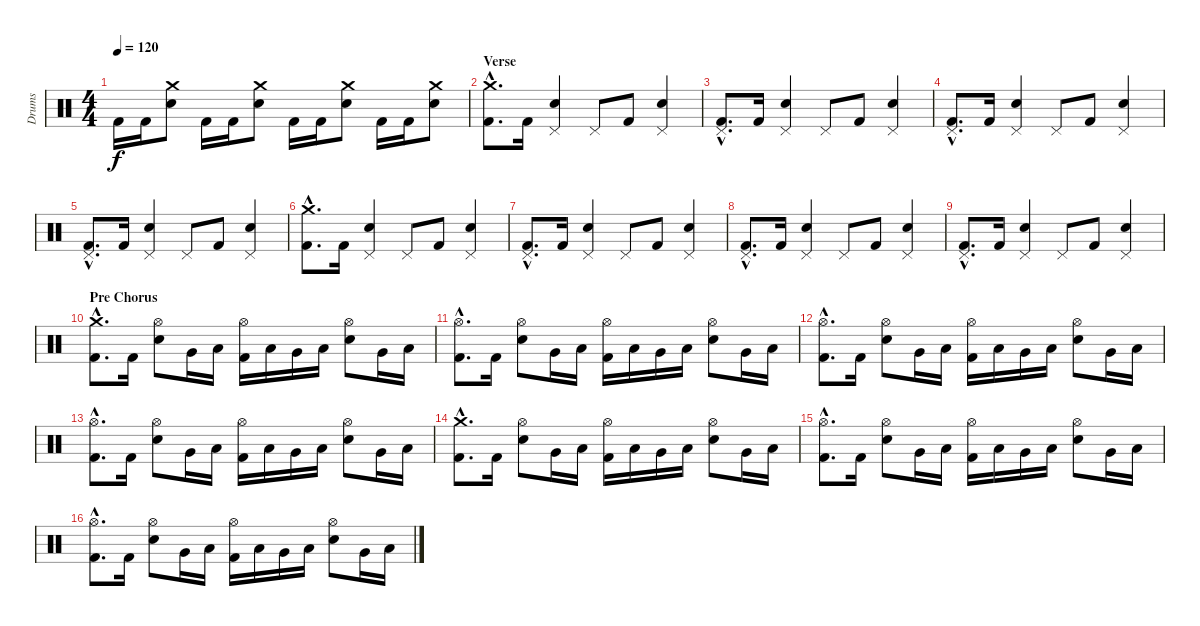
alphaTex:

\track ("Drums" "Drums") {instrument percussion}
\staff {score}
\articulation defaults
\ts (4 4)
\tempo 120
\clef neutral
\ks c "Kick (hit) 2".16{dy f} "Kick (hit) 2".16
("Crash medium (hit)" "Electric Snare (hit)").8 "Kick (hit) 2".16 "Kick (hit) 2".16 ("Crash medium (hit)" "Electric Snare (hit)").8 "Kick (hit) 2".16 "Kick (hit) 2".16 ("Crash medium (hit)" "Electric Snare (hit)").8 "Kick (hit) 2".16 "Kick (hit) 2".16 ("Crash medium (hit)" "Electric Snare (hit)").8 |
\section ("" "Verse")
("Crash medium (hit)"{hac} "Kick (hit) 2"{hac}).8{d} "Kick (hit) 2".16 ("Pedal Hi-Hat (hit)" "Electric Snare (hit)").4 "Pedal Hi-Hat (hit)".8 "Kick (hit) 2".8 ("Pedal Hi-Hat (hit)" "Electric Snare (hit)").4 |
("Pedal Hi-Hat (hit)"{hac} "Kick (hit) 2"{hac}).8{d} "Kick (hit) 2".16 ("Pedal Hi-Hat (hit)" "Electric Snare (hit)").4 "Pedal Hi-Hat (hit)".8 "Kick (hit) 2".8 ("Pedal Hi-Hat (hit)" "Electric Snare (hit)").4 |
("Pedal Hi-Hat (hit)"{hac} "Kick (hit) 2"{hac}).8{d} "Kick (hit) 2".16 ("Pedal Hi-Hat (hit)" "Electric Snare (hit)").4 "Pedal Hi-Hat (hit)".8 "Kick (hit) 2".8 ("Pedal Hi-Hat (hit)" "Electric Snare (hit)").4 |
("Pedal Hi-Hat (hit)"{hac} "Kick (hit) 2"{hac}).8{d} "Kick (hit) 2".16 ("Pedal Hi-Hat (hit)" "Electric Snare (hit)").4 "Pedal Hi-Hat (hit)".8 "Kick (hit) 2".8 ("Pedal Hi-Hat (hit)" "Electric Snare (hit)").4 |
("Crash medium (hit)"{hac} "Kick (hit) 2"{hac}).8{d} "Kick (hit) 2".16 ("Pedal Hi-Hat (hit)" "Electric Snare (hit)").4 "Pedal Hi-Hat (hit)".8 "Kick (hit) 2".8 ("Pedal Hi-Hat (hit)" "Electric Snare (hit)").4 |
("Pedal Hi-Hat (hit)"{hac} "Kick (hit) 2"{hac}).8{d} "Kick (hit) 2".16 ("Pedal Hi-Hat (hit)" "Electric Snare (hit)").4 "Pedal Hi-Hat (hit)".8 "Kick (hit) 2".8 ("Pedal Hi-Hat (hit)" "Electric Snare (hit)").4 |
("Pedal Hi-Hat (hit)"{hac} "Kick (hit) 2"{hac}).8{d} "Kick (hit) 2".16 ("Pedal Hi-Hat (hit)" "Electric Snare (hit)").4 "Pedal Hi-Hat (hit)".8 "Kick (hit) 2".8 ("Pedal Hi-Hat (hit)" "Electric Snare (hit)").4 |
("Pedal Hi-Hat (hit)"{hac} "Kick (hit) 2"{hac}).8{d} "Kick (hit) 2".16 ("Pedal Hi-Hat (hit)" "Electric Snare (hit)").4 "Pedal Hi-Hat (hit)".8 "Kick (hit) 2".8 ("Pedal Hi-Hat (hit)" "Electric Snare (hit)").4 |
\section ("" "Pre Chorus")
("Crash medium (hit)"{hac} "Kick (hit) 2"{hac}).8{d} "Kick (hit) 2".16 ("Hi-Hat (open)" "Electric Snare (hit)").8 "Very Low Tom (hit)".16 "Low Tom (hit)".16 ("Hi-Hat (open)" "Kick (hit) 2").16 "Low Tom (hit)".16 "Very Low Tom (hit)".16 "Low Floor Tom (hit)".16 ("Hi-Hat (open)" "Electric Snare (hit)").8 "Very Low Tom (hit)".16 "Low Tom (hit)".16 |
("Hi-Hat (open)"{hac} "Kick (hit) 2"{hac}).8{d} "Kick (hit) 2".16 ("Hi-Hat (open)" "Electric Snare (hit)").8 "Very Low Tom (hit)".16 "Low Tom (hit)".16 ("Hi-Hat (open)" "Kick (hit) 2").16 "Low Tom (hit)".16 "Very Low Tom (hit)".16 "Low Floor Tom (hit)".16 ("Hi-Hat (open)" "Electric Snare (hit)").8 "Very Low Tom (hit)".16 "Low Tom (hit)".16 |
("Hi-Hat (open)"{hac} "Kick (hit) 2"{hac}).8{d} "Kick (hit) 2".16 ("Hi-Hat (open)" "Electric Snare (hit)").8 "Very Low Tom (hit)".16 "Low Tom (hit)".16 ("Hi-Hat (open)" "Kick (hit) 2").16 "Low Tom (hit)".16 "Very Low Tom (hit)".16 "Low Floor Tom (hit)".16 ("Hi-Hat (open)" "Electric Snare (hit)").8 "Very Low Tom (hit)".16 "Low Tom (hit)".16 |
("Hi-Hat (open)"{hac} "Kick (hit) 2"{hac}).8{d} "Kick (hit) 2".16 ("Hi-Hat (open)" "Electric Snare (hit)").8 "Very Low Tom (hit)".16 "Low Tom (hit)".16 ("Hi-Hat (open)" "Kick (hit) 2").16 "Low Tom (hit)".16 "Very Low Tom (hit)".16 "Low Floor Tom (hit)".16 ("Hi-Hat (open)" "Electric Snare (hit)").8 "Very Low Tom (hit)".16 "Low Tom (hit)".16 |
("Crash medium (hit)"{hac} "Kick (hit) 2"{hac}).8{d} "Kick (hit) 2".16 ("Hi-Hat (open)" "Electric Snare (hit)").8 "Very Low Tom (hit)".16 "Low Tom (hit)".16 ("Hi-Hat (open)" "Kick (hit) 2").16 "Low Tom (hit)".16 "Very Low Tom (hit)".16 "Low Floor Tom (hit)".16 ("Hi-Hat (open)" "Electric Snare (hit)").8 "Very Low Tom (hit)".16 "Low Tom (hit)".16 |
("Hi-Hat (open)"{hac} "Kick (hit) 2"{hac}).8{d} "Kick (hit) 2".16 ("Hi-Hat (open)" "Electric Snare (hit)").8 "Very Low Tom (hit)".16 "Low Tom (hit)".16 ("Hi-Hat (open)" "Kick (hit) 2").16 "Low Tom (hit)".16 "Very Low Tom (hit)".16 "Low Floor Tom (hit)".16 ("Hi-Hat (open)" "Electric Snare (hit)").8 "Very Low Tom (hit)".16 "Low Tom (hit)".16 |
("Hi-Hat (open)"{hac} "Kick (hit) 2"{hac}).8{d} "Kick (hit) 2".16 ("Hi-Hat (open)" "Electric Snare (hit)").8 "Very Low Tom (hit)".16 "Low Tom (hit)".16 ("Hi-Hat (open)" "Kick (hit) 2").16 "Low Tom (hit)".16 "Very Low Tom (hit)".16 "Low Floor Tom (hit)".16 ("Hi-Hat (open)" "Electric Snare (hit)").8 "Very Low Tom (hit)".16 "Low Tom (hit)".16
